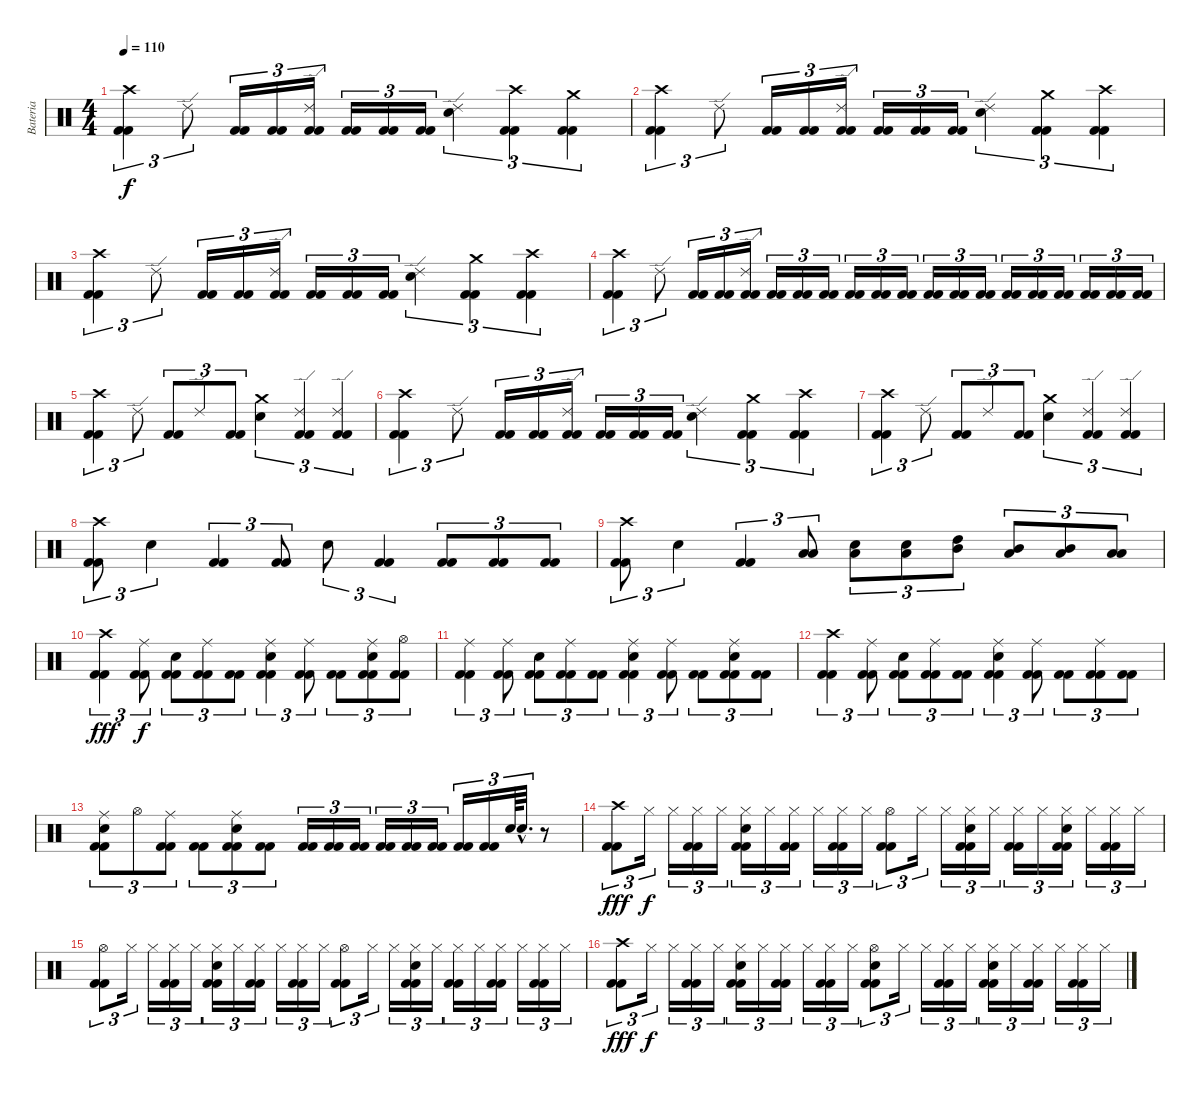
\track ("Bateria" "Bateria") {instrument percussion}
\staff {score}
\articulation defaults
\ts (4 4)
\tempo 110
\clef neutral
\ks c
("Crash high (hit)" "Kick (hit) 2" "Kick (hit) 2").4{tu (3 2) dy f} "Ride (edge) 2".8{tu (3 2)} ("Kick (hit) 2" "Kick (hit) 2").16{tu (3 2)} ("Kick (hit) 2" "Kick (hit) 2").16{tu (3 2)} ("Ride (edge) 2" "Kick (hit) 2" "Kick (hit) 2").16{tu (3 2)} ("Kick (hit) 2" "Kick (hit) 2").16{tu (3 2)} ("Kick (hit) 2" "Kick (hit) 2").16{tu (3 2)} ("Kick (hit) 2" "Kick (hit) 2").16{tu (3 2)} ("Ride (edge) 2" "Electric Snare (hit)").4{tu (3 2)} ("Crash high (hit)" "Kick (hit) 2" "Kick (hit) 2").4{tu (3 2)} ("Crash medium (hit)" "Kick (hit) 2" "Kick (hit) 2").4{tu (3 2)} |
("Crash high (hit)" "Kick (hit) 2" "Kick (hit) 2").4{tu (3 2)} "Ride (edge) 2".8{tu (3 2)} ("Kick (hit) 2" "Kick (hit) 2").16{tu (3 2)} ("Kick (hit) 2" "Kick (hit) 2").16{tu (3 2)} ("Ride (edge) 2" "Kick (hit) 2" "Kick (hit) 2").16{tu (3 2)} ("Kick (hit) 2" "Kick (hit) 2").16{tu (3 2)} ("Kick (hit) 2" "Kick (hit) 2").16{tu (3 2)} ("Kick (hit) 2" "Kick (hit) 2").16{tu (3 2)} ("Ride (edge) 2" "Electric Snare (hit)").4{tu (3 2)} ("Crash medium (hit)" "Kick (hit) 2" "Kick (hit) 2").4{tu (3 2)} ("Crash high (hit)" "Kick (hit) 2" "Kick (hit) 2").4{tu (3 2)} |
("Crash high (hit)" "Kick (hit) 2" "Kick (hit) 2").4{tu (3 2)} "Ride (edge) 2".8{tu (3 2)} ("Kick (hit) 2" "Kick (hit) 2").16{tu (3 2)} ("Kick (hit) 2" "Kick (hit) 2").16{tu (3 2)} ("Ride (edge) 2" "Kick (hit) 2" "Kick (hit) 2").16{tu (3 2)} ("Kick (hit) 2" "Kick (hit) 2").16{tu (3 2)} ("Kick (hit) 2" "Kick (hit) 2").16{tu (3 2)} ("Kick (hit) 2" "Kick (hit) 2").16{tu (3 2)} ("Ride (edge) 2" "Electric Snare (hit)").4{tu (3 2)} ("Crash medium (hit)" "Kick (hit) 2" "Kick (hit) 2").4{tu (3 2)} ("Crash high (hit)" "Kick (hit) 2" "Kick (hit) 2").4{tu (3 2)} |
("Crash high (hit)" "Kick (hit) 2" "Kick (hit) 2").4{tu (3 2)} "Ride (edge) 2".8{tu (3 2)} ("Kick (hit) 2" "Kick (hit) 2").16{tu (3 2)} ("Kick (hit) 2" "Kick (hit) 2").16{tu (3 2)} ("Ride (edge) 2" "Kick (hit) 2" "Kick (hit) 2").16{tu (3 2)} ("Kick (hit) 2" "Kick (hit) 2").16{tu (3 2)} ("Kick (hit) 2" "Kick (hit) 2").16{tu (3 2)} ("Kick (hit) 2" "Kick (hit) 2").16{tu (3 2)} ("Kick (hit) 2" "Kick (hit) 2").16{tu (3 2)} ("Kick (hit) 2" "Kick (hit) 2").16{tu (3 2)} ("Kick (hit) 2" "Kick (hit) 2").16{tu (3 2)} ("Kick (hit) 2" "Kick (hit) 2").16{tu (3 2)} ("Kick (hit) 2" "Kick (hit) 2").16{tu (3 2)} ("Kick (hit) 2" "Kick (hit) 2").16{tu (3 2)} ("Kick (hit) 2" "Kick (hit) 2").16{tu (3 2)} ("Kick (hit) 2" "Kick (hit) 2").16{tu (3 2)} ("Kick (hit) 2" "Kick (hit) 2").16{tu (3 2)} ("Kick (hit) 2" "Kick (hit) 2").16{tu (3 2)} ("Kick (hit) 2" "Kick (hit) 2").16{tu (3 2)} ("Kick (hit) 2" "Kick (hit) 2").16{tu (3 2)} |
("Crash high (hit)" "Kick (hit) 2" "Kick (hit) 2").4{tu (3 2)} "Ride (edge) 2".8{tu (3 2)} ("Kick (hit) 2" "Kick (hit) 2").8{tu (3 2)} "Ride (edge) 2".8{tu (3 2)} ("Kick (hit) 2" "Kick (hit) 2").8{tu (3 2)} ("Crash medium (hit)" "Electric Snare (hit)").4{tu (3 2)} ("Ride (edge) 2" "Kick (hit) 2" "Kick (hit) 2").4{tu (3 2)} ("Ride (edge) 2" "Kick (hit) 2" "Kick (hit) 2").4{tu (3 2)} |
("Crash high (hit)" "Kick (hit) 2" "Kick (hit) 2").4{tu (3 2)} "Ride (edge) 2".8{tu (3 2)} ("Kick (hit) 2" "Kick (hit) 2").16{tu (3 2)} ("Kick (hit) 2" "Kick (hit) 2").16{tu (3 2)} ("Ride (edge) 2" "Kick (hit) 2" "Kick (hit) 2").16{tu (3 2)} ("Kick (hit) 2" "Kick (hit) 2").16{tu (3 2)} ("Kick (hit) 2" "Kick (hit) 2").16{tu (3 2)} ("Kick (hit) 2" "Kick (hit) 2").16{tu (3 2)} ("Ride (edge) 2" "Electric Snare (hit)").4{tu (3 2)} ("Crash medium (hit)" "Kick (hit) 2" "Kick (hit) 2").4{tu (3 2)} ("Crash high (hit)" "Kick (hit) 2" "Kick (hit) 2").4{tu (3 2)} |
("Crash high (hit)" "Kick (hit) 2" "Kick (hit) 2").4{tu (3 2)} "Ride (edge) 2".8{tu (3 2)} ("Kick (hit) 2" "Kick (hit) 2").8{tu (3 2)} "Ride (edge) 2".8{tu (3 2)} ("Kick (hit) 2" "Kick (hit) 2").8{tu (3 2)} ("Crash medium (hit)" "Electric Snare (hit)").4{tu (3 2)} ("Ride (edge) 2" "Kick (hit) 2" "Kick (hit) 2").4{tu (3 2)} ("Ride (edge) 2" "Kick (hit) 2" "Kick (hit) 2").4{tu (3 2)} |
("Crash high (hit)" "Kick (hit) 2" "Kick (hit) 2").8{tu (3 2)} "Electric Snare (hit)".4{tu (3 2)} ("Kick (hit) 2" "Kick (hit) 2").4{tu (3 2)} ("Kick (hit) 2" "Kick (hit) 2").8{tu (3 2)} "Electric Snare (hit)".8{tu (3 2)} ("Kick (hit) 2" "Kick (hit) 2").4{tu (3 2)} ("Kick (hit) 2" "Kick (hit) 2").8{tu (3 2)} ("Kick (hit) 2" "Kick (hit) 2").8{tu (3 2)} ("Kick (hit) 2" "Kick (hit) 2").8{tu (3 2)} |
("Crash high (hit)" "Kick (hit) 2" "Kick (hit) 2").8{tu (3 2)} "Electric Snare (hit)".4{tu (3 2)} ("Kick (hit) 2" "Kick (hit) 2").4{tu (3 2)} ("Low Tom (hit)" "Low Tom (hit)").8{tu (3 2)} ("Electric Snare (hit)" "Low Tom (hit)").8{tu (3 2)} ("Electric Snare (hit)" "Low Tom (hit)").8{tu (3 2)} ("High Tom (hit)" "Mid Tom (hit)").8{tu (3 2)} ("Low Tom (hit)" "Mid Tom (hit)").8{tu (3 2)} ("Low Tom (hit)" "Mid Tom (hit)").8{tu (3 2)} ("Low Tom (hit)" "Low Tom (hit)").8{tu (3 2)} |
("Crash high (hit)" "Kick (hit) 2" "Kick (hit) 2").4{tu (3 2) dy fff} ("Ride (middle)" "Kick (hit) 2" "Kick (hit) 2").8{tu (3 2) dy f} ("Electric Snare (hit)" "Kick (hit) 2" "Kick (hit) 2").8{tu (3 2)} ("Ride (middle)" "Kick (hit) 2" "Kick (hit) 2").8{tu (3 2)} ("Kick (hit) 2" "Kick (hit) 2").8{tu (3 2)} ("Ride (middle)" "Electric Snare (hit)" "Kick (hit) 2" "Kick (hit) 2").4{tu (3 2)} ("Ride (middle)" "Kick (hit) 2" "Kick (hit) 2").8{tu (3 2)} ("Kick (hit) 2" "Kick (hit) 2").8{tu (3 2)} ("Ride (middle)" "Electric Snare (hit)" "Kick (hit) 2" "Kick (hit) 2").8{tu (3 2)} ("Hi-Hat (open)" "Kick (hit) 2" "Kick (hit) 2").8{tu (3 2)} |
("Ride (middle)" "Kick (hit) 2" "Kick (hit) 2").4{tu (3 2)} ("Ride (middle)" "Kick (hit) 2" "Kick (hit) 2").8{tu (3 2)} ("Electric Snare (hit)" "Kick (hit) 2" "Kick (hit) 2").8{tu (3 2)} ("Ride (middle)" "Kick (hit) 2" "Kick (hit) 2").8{tu (3 2)} ("Kick (hit) 2" "Kick (hit) 2").8{tu (3 2)} ("Ride (middle)" "Electric Snare (hit)" "Kick (hit) 2" "Kick (hit) 2").4{tu (3 2)} ("Ride (middle)" "Kick (hit) 2" "Kick (hit) 2").8{tu (3 2)} ("Kick (hit) 2" "Kick (hit) 2").8{tu (3 2)} ("Ride (middle)" "Electric Snare (hit)" "Kick (hit) 2" "Kick (hit) 2").8{tu (3 2)} ("Kick (hit) 2" "Kick (hit) 2").8{tu (3 2)} |
("Crash high (hit)" "Kick (hit) 2" "Kick (hit) 2").4{tu (3 2)} ("Ride (middle)" "Kick (hit) 2" "Kick (hit) 2").8{tu (3 2)} ("Electric Snare (hit)" "Kick (hit) 2" "Kick (hit) 2").8{tu (3 2)} ("Ride (middle)" "Kick (hit) 2" "Kick (hit) 2").8{tu (3 2)} ("Kick (hit) 2" "Kick (hit) 2").8{tu (3 2)} ("Ride (middle)" "Electric Snare (hit)" "Kick (hit) 2" "Kick (hit) 2").4{tu (3 2)} ("Ride (middle)" "Kick (hit) 2" "Kick (hit) 2").8{tu (3 2)} ("Kick (hit) 2" "Kick (hit) 2").8{tu (3 2)} ("Ride (middle)" "Kick (hit) 2" "Kick (hit) 2").8{tu (3 2)} ("Kick (hit) 2" "Kick (hit) 2").8{tu (3 2)} |
("Ride (middle)" "Electric Snare (hit)" "Kick (hit) 2" "Kick (hit) 2").8{tu (3 2)} "Hi-Hat (open)".8{tu (3 2)} ("Ride (middle)" "Kick (hit) 2" "Kick (hit) 2").8{tu (3 2)} ("Kick (hit) 2" "Kick (hit) 2").8{tu (3 2)} ("Ride (middle)" "Electric Snare (hit)" "Kick (hit) 2" "Kick (hit) 2").8{tu (3 2)} ("Kick (hit) 2" "Kick (hit) 2").8{tu (3 2)} ("Kick (hit) 2" "Kick (hit) 2").16{tu (3 2)} ("Kick (hit) 2" "Kick (hit) 2").16{tu (3 2)} ("Kick (hit) 2" "Kick (hit) 2").16{tu (3 2)} ("Kick (hit) 2" "Kick (hit) 2").16{tu (3 2)} ("Kick (hit) 2" "Kick (hit) 2").16{tu (3 2)} ("Kick (hit) 2" "Kick (hit) 2").16{tu (3 2)} ("Kick (hit) 2" "Kick (hit) 2").16{tu (3 2)} ("Kick (hit) 2" "Kick (hit) 2").16{tu (3 2)} "Electric Snare (hit)".64{tu (3 2)} "Electric Snare (hit)"{hac}.32{d tu (3 2)} r.8 |
("Crash high (hit)" "Kick (hit) 2" "Kick (hit) 2").8{tu (3 2) dy fff} "Hi-Hat (closed)".16{tu (3 2) dy f} "Hi-Hat (closed)".16{tu (3 2)} ("Hi-Hat (closed)" "Kick (hit) 2" "Kick (hit) 2").16{tu (3 2)} "Hi-Hat (closed)".16{tu (3 2)} ("Hi-Hat (closed)" "Electric Snare (hit)" "Kick (hit) 2" "Kick (hit) 2").16{tu (3 2)} "Hi-Hat (closed)".16{tu (3 2)} ("Hi-Hat (closed)" "Kick (hit) 2" "Kick (hit) 2").16{tu (3 2)} "Hi-Hat (closed)".16{tu (3 2)} ("Hi-Hat (closed)" "Kick (hit) 2" "Kick (hit) 2").16{tu (3 2)} "Hi-Hat (closed)".16{tu (3 2)} ("Hi-Hat (open)" "Kick (hit) 2" "Kick (hit) 2").8{tu (3 2)} "Hi-Hat (closed)".16{tu (3 2)} "Hi-Hat (closed)".16{tu (3 2)} ("Hi-Hat (closed)" "Electric Snare (hit)" "Kick (hit) 2" "Kick (hit) 2").16{tu (3 2)} "Hi-Hat (closed)".16{tu (3 2)} ("Hi-Hat (closed)" "Kick (hit) 2" "Kick (hit) 2").16{tu (3 2)} "Hi-Hat (closed)".16{tu (3 2)} ("Hi-Hat (closed)" "Electric Snare (hit)" "Kick (hit) 2" "Kick (hit) 2").16{tu (3 2)} "Hi-Hat (closed)".16{tu (3 2)} ("Hi-Hat (closed)" "Kick (hit) 2" "Kick (hit) 2").16{tu (3 2)} "Hi-Hat (closed)".16{tu (3 2)} |
("Hi-Hat (open)" "Kick (hit) 2" "Kick (hit) 2").8{tu (3 2)} "Hi-Hat (closed)".16{tu (3 2)} "Hi-Hat (closed)".16{tu (3 2)} ("Hi-Hat (closed)" "Kick (hit) 2" "Kick (hit) 2").16{tu (3 2)} "Hi-Hat (closed)".16{tu (3 2)} ("Hi-Hat (closed)" "Electric Snare (hit)" "Kick (hit) 2" "Kick (hit) 2").16{tu (3 2)} "Hi-Hat (closed)".16{tu (3 2)} ("Hi-Hat (closed)" "Kick (hit) 2" "Kick (hit) 2").16{tu (3 2)} "Hi-Hat (closed)".16{tu (3 2)} ("Hi-Hat (closed)" "Kick (hit) 2" "Kick (hit) 2").16{tu (3 2)} "Hi-Hat (closed)".16{tu (3 2)} ("Hi-Hat (open)" "Kick (hit) 2" "Kick (hit) 2").8{tu (3 2)} "Hi-Hat (closed)".16{tu (3 2)} "Hi-Hat (closed)".16{tu (3 2)} ("Hi-Hat (closed)" "Electric Snare (hit)" "Kick (hit) 2" "Kick (hit) 2").16{tu (3 2)} "Hi-Hat (closed)".16{tu (3 2)} ("Hi-Hat (closed)" "Kick (hit) 2" "Kick (hit) 2").16{tu (3 2)} "Hi-Hat (closed)".16{tu (3 2)} ("Hi-Hat (closed)" "Kick (hit) 2" "Kick (hit) 2").16{tu (3 2)} "Hi-Hat (closed)".16{tu (3 2)} ("Hi-Hat (closed)" "Kick (hit) 2" "Kick (hit) 2").16{tu (3 2)} "Hi-Hat (closed)".16{tu (3 2)} |
("Crash high (hit)" "Kick (hit) 2" "Kick (hit) 2").8{tu (3 2) dy fff} "Hi-Hat (closed)".16{tu (3 2) dy f} "Hi-Hat (closed)".16{tu (3 2)} ("Hi-Hat (closed)" "Kick (hit) 2" "Kick (hit) 2").16{tu (3 2)} "Hi-Hat (closed)".16{tu (3 2)} ("Hi-Hat (closed)" "Electric Snare (hit)" "Kick (hit) 2" "Kick (hit) 2").16{tu (3 2)} "Hi-Hat (closed)".16{tu (3 2)} ("Hi-Hat (closed)" "Kick (hit) 2" "Kick (hit) 2").16{tu (3 2)} "Hi-Hat (closed)".16{tu (3 2)} ("Hi-Hat (closed)" "Kick (hit) 2" "Kick (hit) 2").16{tu (3 2)} "Hi-Hat (closed)".16{tu (3 2)} ("Hi-Hat (open)" "Electric Snare (hit)" "Kick (hit) 2" "Kick (hit) 2").8{tu (3 2)} "Hi-Hat (closed)".16{tu (3 2)} "Hi-Hat (closed)".16{tu (3 2)} ("Hi-Hat (closed)" "Kick (hit) 2" "Kick (hit) 2").16{tu (3 2)} "Hi-Hat (closed)".16{tu (3 2)} ("Hi-Hat (closed)" "Electric Snare (hit)" "Kick (hit) 2" "Kick (hit) 2").16{tu (3 2)} "Hi-Hat (closed)".16{tu (3 2)} ("Hi-Hat (closed)" "Kick (hit) 2" "Kick (hit) 2").16{tu (3 2)} "Hi-Hat (closed)".16{tu (3 2)} ("Hi-Hat (closed)" "Kick (hit) 2" "Kick (hit) 2").16{tu (3 2)} "Hi-Hat (closed)".16{tu (3 2)}
